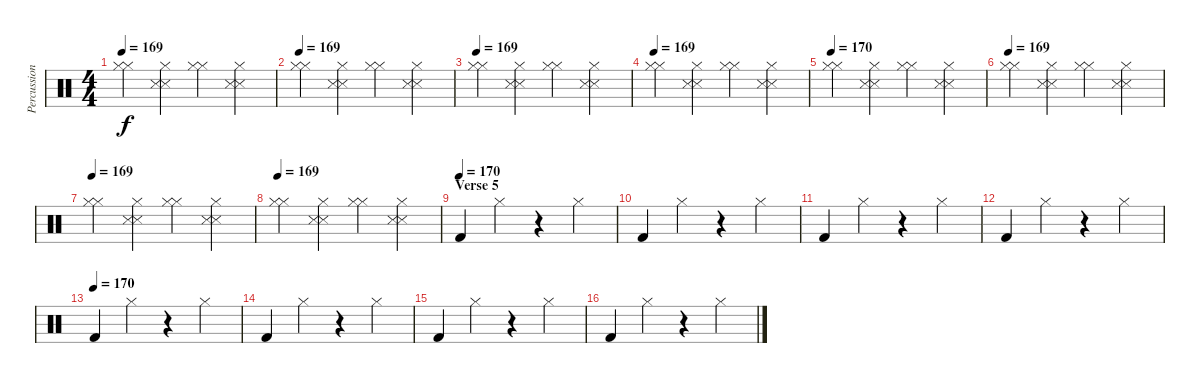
\track ("Percussion" "Percussion") {instrument percussion}
\staff {score}
\articulation defaults
\ts (4 4)
\tempo 169
\clef neutral
\ks c
("Hi-Hat (closed)" "Hi-Hat (closed)").4{dy f} ("Hi-Hat (closed)" "Snare (side stick) 3" "Snare (side stick) 3").4 ("Hi-Hat (closed)" "Hi-Hat (closed)").4 ("Hi-Hat (closed)" "Snare (side stick) 3" "Snare (side stick) 3").4 |
\tempo 169
("Hi-Hat (closed)" "Hi-Hat (closed)").4 ("Hi-Hat (closed)" "Snare (side stick) 3" "Snare (side stick) 3").4 ("Hi-Hat (closed)" "Hi-Hat (closed)").4 ("Hi-Hat (closed)" "Snare (side stick) 3" "Snare (side stick) 3").4 |
\tempo 169
("Hi-Hat (closed)" "Hi-Hat (closed)").4 ("Hi-Hat (closed)" "Snare (side stick) 3" "Snare (side stick) 3").4 ("Hi-Hat (closed)" "Hi-Hat (closed)").4 ("Hi-Hat (closed)" "Snare (side stick) 3" "Snare (side stick) 3").4 |
\tempo 169
("Hi-Hat (closed)" "Hi-Hat (closed)").4 ("Hi-Hat (closed)" "Snare (side stick) 3" "Snare (side stick) 3").4 ("Hi-Hat (closed)" "Hi-Hat (closed)").4 ("Hi-Hat (closed)" "Snare (side stick) 3" "Snare (side stick) 3").4 |
\tempo 169
\tempo 170
("Hi-Hat (closed)" "Hi-Hat (closed)").4 ("Hi-Hat (closed)" "Snare (side stick) 3" "Snare (side stick) 3").4 ("Hi-Hat (closed)" "Hi-Hat (closed)").4 ("Hi-Hat (closed)" "Snare (side stick) 3" "Snare (side stick) 3").4 |
\tempo 169
("Hi-Hat (closed)" "Hi-Hat (closed)").4 ("Hi-Hat (closed)" "Snare (side stick) 3" "Snare (side stick) 3").4 ("Hi-Hat (closed)" "Hi-Hat (closed)").4 ("Hi-Hat (closed)" "Snare (side stick) 3" "Snare (side stick) 3").4 |
\tempo 169
("Hi-Hat (closed)" "Hi-Hat (closed)").4 ("Hi-Hat (closed)" "Snare (side stick) 3" "Snare (side stick) 3").4 ("Hi-Hat (closed)" "Hi-Hat (closed)").4 ("Hi-Hat (closed)" "Snare (side stick) 3" "Snare (side stick) 3").4 |
\tempo 169
("Hi-Hat (closed)" "Hi-Hat (closed)").4 ("Hi-Hat (closed)" "Snare (side stick) 3" "Snare (side stick) 3").4 ("Hi-Hat (closed)" "Hi-Hat (closed)").4 ("Hi-Hat (closed)" "Snare (side stick) 3" "Snare (side stick) 3").4 |
\section ("" "Verse 5")
\tempo (170)
"Kick (hit) 2".4 "Hi-Hat (closed)".4 r.4 "Hi-Hat (closed)".4 |
"Kick (hit) 2".4 "Hi-Hat (closed)".4 r.4 "Hi-Hat (closed)".4 |
"Kick (hit) 2".4 "Hi-Hat (closed)".4 r.4 "Hi-Hat (closed)".4 |
"Kick (hit) 2".4 "Hi-Hat (closed)".4 r.4 "Hi-Hat (closed)".4 |
\tempo (170)
"Kick (hit) 2".4 "Hi-Hat (closed)".4 r.4 "Hi-Hat (closed)".4 |
"Kick (hit) 2".4 "Hi-Hat (closed)".4 r.4 "Hi-Hat (closed)".4 |
"Kick (hit) 2".4 "Hi-Hat (closed)".4 r.4 "Hi-Hat (closed)".4 |
"Kick (hit) 2".4 "Hi-Hat (closed)".4 r.4 "Hi-Hat (closed)".4
